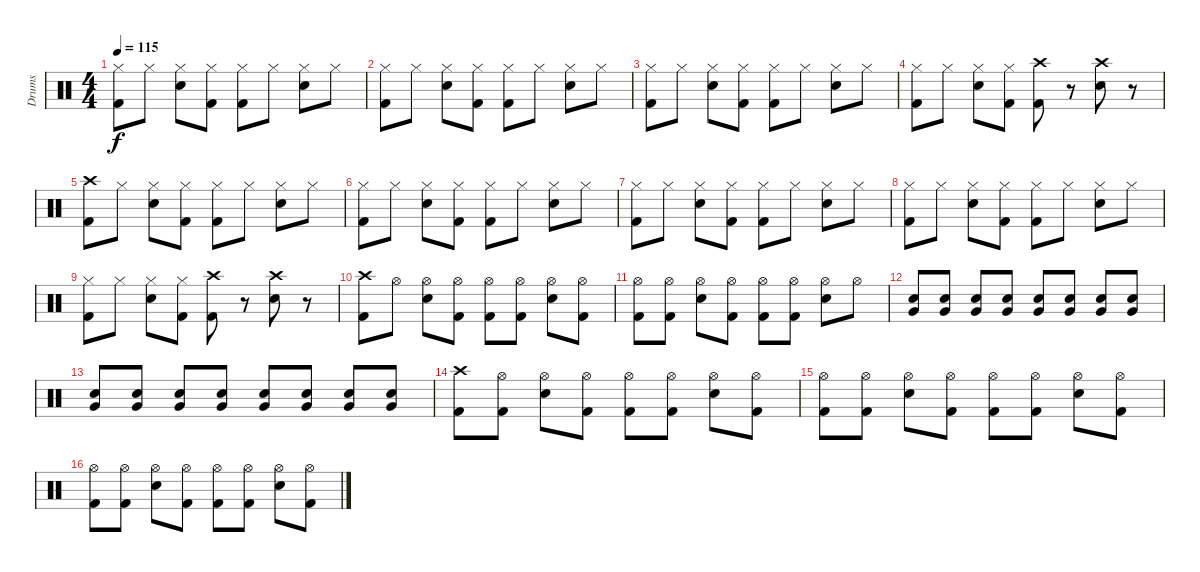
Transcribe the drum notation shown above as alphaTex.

\track ("Drums" "Drums") {instrument percussion}
\staff {score}
\articulation defaults
\ts (4 4)
\tempo 115
\clef neutral
\ks c
("Hi-Hat (closed)" "Kick (hit) 2").8{dy f} "Hi-Hat (closed)".8 ("Hi-Hat (closed)" "Electric Snare (hit)").8 ("Hi-Hat (closed)" "Kick (hit) 2").8 ("Hi-Hat (closed)" "Kick (hit) 2").8 "Hi-Hat (closed)".8 ("Hi-Hat (closed)" "Electric Snare (hit)").8 "Hi-Hat (closed)".8 |
("Hi-Hat (closed)" "Kick (hit) 2").8 "Hi-Hat (closed)".8 ("Hi-Hat (closed)" "Electric Snare (hit)").8 ("Hi-Hat (closed)" "Kick (hit) 2").8 ("Hi-Hat (closed)" "Kick (hit) 2").8 "Hi-Hat (closed)".8 ("Hi-Hat (closed)" "Electric Snare (hit)").8 "Hi-Hat (closed)".8 |
("Hi-Hat (closed)" "Kick (hit) 2").8 "Hi-Hat (closed)".8 ("Hi-Hat (closed)" "Electric Snare (hit)").8 ("Hi-Hat (closed)" "Kick (hit) 2").8 ("Hi-Hat (closed)" "Kick (hit) 2").8 "Hi-Hat (closed)".8 ("Hi-Hat (closed)" "Electric Snare (hit)").8 "Hi-Hat (closed)".8 |
("Hi-Hat (closed)" "Kick (hit) 2").8 "Hi-Hat (closed)".8 ("Hi-Hat (closed)" "Electric Snare (hit)").8 ("Hi-Hat (closed)" "Kick (hit) 2").8 ("Crash high (hit)" "Kick (hit) 2").8 r.8 ("Crash high (hit)" "Electric Snare (hit)").8 r.8 |
("Crash high (hit)" "Kick (hit) 2").8 "Hi-Hat (closed)".8 ("Hi-Hat (closed)" "Electric Snare (hit)").8 ("Hi-Hat (closed)" "Kick (hit) 2").8 ("Hi-Hat (closed)" "Kick (hit) 2").8 "Hi-Hat (closed)".8 ("Hi-Hat (closed)" "Electric Snare (hit)").8 "Hi-Hat (closed)".8 |
("Hi-Hat (closed)" "Kick (hit) 2").8 "Hi-Hat (closed)".8 ("Hi-Hat (closed)" "Electric Snare (hit)").8 ("Hi-Hat (closed)" "Kick (hit) 2").8 ("Hi-Hat (closed)" "Kick (hit) 2").8 "Hi-Hat (closed)".8 ("Hi-Hat (closed)" "Electric Snare (hit)").8 "Hi-Hat (closed)".8 |
("Hi-Hat (closed)" "Kick (hit) 2").8 "Hi-Hat (closed)".8 ("Hi-Hat (closed)" "Electric Snare (hit)").8 ("Hi-Hat (closed)" "Kick (hit) 2").8 ("Hi-Hat (closed)" "Kick (hit) 2").8 "Hi-Hat (closed)".8 ("Hi-Hat (closed)" "Electric Snare (hit)").8 "Hi-Hat (closed)".8 |
("Hi-Hat (closed)" "Kick (hit) 2").8 "Hi-Hat (closed)".8 ("Hi-Hat (closed)" "Electric Snare (hit)").8 ("Hi-Hat (closed)" "Kick (hit) 2").8 ("Hi-Hat (closed)" "Kick (hit) 2").8 "Hi-Hat (closed)".8 ("Hi-Hat (closed)" "Electric Snare (hit)").8 "Hi-Hat (closed)".8 |
("Hi-Hat (closed)" "Kick (hit) 2").8 "Hi-Hat (closed)".8 ("Hi-Hat (closed)" "Electric Snare (hit)").8 ("Hi-Hat (closed)" "Kick (hit) 2").8 ("Crash high (hit)" "Kick (hit) 2").8 r.8 ("Crash high (hit)" "Electric Snare (hit)").8 r.8 |
("Kick (hit) 2" "Crash high (hit)").8 "Hi-Hat (open)".8 ("Hi-Hat (open)" "Electric Snare (hit)").8 ("Hi-Hat (open)" "Kick (hit) 2").8 ("Hi-Hat (open)" "Kick (hit) 2").8 ("Hi-Hat (open)" "Kick (hit) 2").8 ("Hi-Hat (open)" "Electric Snare (hit)").8 ("Hi-Hat (open)" "Kick (hit) 2").8 |
("Hi-Hat (open)" "Kick (hit) 2").8 ("Hi-Hat (open)" "Kick (hit) 2").8 ("Hi-Hat (open)" "Electric Snare (hit)").8 ("Hi-Hat (open)" "Kick (hit) 2").8 ("Hi-Hat (open)" "Kick (hit) 2").8 ("Hi-Hat (open)" "Kick (hit) 2").8 ("Hi-Hat (open)" "Electric Snare (hit)").8 "Hi-Hat (open)".8 |
("Electric Snare (hit)" "Very Low Tom (hit)").8 ("Electric Snare (hit)" "Very Low Tom (hit)").8 ("Electric Snare (hit)" "Very Low Tom (hit)").8 ("Electric Snare (hit)" "Very Low Tom (hit)").8 ("Electric Snare (hit)" "Very Low Tom (hit)").8 ("Electric Snare (hit)" "Very Low Tom (hit)").8 ("Electric Snare (hit)" "Very Low Tom (hit)").8 ("Electric Snare (hit)" "Very Low Tom (hit)").8 |
("Electric Snare (hit)" "Very Low Tom (hit)").8 ("Electric Snare (hit)" "Very Low Tom (hit)").8 ("Electric Snare (hit)" "Very Low Tom (hit)").8 ("Electric Snare (hit)" "Very Low Tom (hit)").8 ("Electric Snare (hit)" "Very Low Tom (hit)").8 ("Electric Snare (hit)" "Very Low Tom (hit)").8 ("Electric Snare (hit)" "Very Low Tom (hit)").8 ("Electric Snare (hit)" "Very Low Tom (hit)").8 |
("Kick (hit) 2" "Crash high (hit)").8 ("Kick (hit) 2" "Hi-Hat (open)").8 ("Electric Snare (hit)" "Hi-Hat (open)").8 ("Kick (hit) 2" "Hi-Hat (open)").8 ("Kick (hit) 2" "Hi-Hat (open)").8 ("Kick (hit) 2" "Hi-Hat (open)").8 ("Electric Snare (hit)" "Hi-Hat (open)").8 ("Hi-Hat (open)" "Kick (hit) 2").8 |
("Kick (hit) 2" "Hi-Hat (open)").8 ("Kick (hit) 2" "Hi-Hat (open)").8 ("Hi-Hat (open)" "Electric Snare (hit)").8 ("Hi-Hat (open)" "Kick (hit) 2").8 ("Hi-Hat (open)" "Kick (hit) 2").8 ("Hi-Hat (open)" "Kick (hit) 2").8 ("Hi-Hat (open)" "Electric Snare (hit)").8 ("Hi-Hat (open)" "Kick (hit) 2").8 |
("Kick (hit) 2" "Hi-Hat (open)").8 ("Kick (hit) 2" "Hi-Hat (open)").8 ("Electric Snare (hit)" "Hi-Hat (open)").8 ("Kick (hit) 2" "Hi-Hat (open)").8 ("Kick (hit) 2" "Hi-Hat (open)").8 ("Kick (hit) 2" "Hi-Hat (open)").8 ("Electric Snare (hit)" "Hi-Hat (open)").8 ("Hi-Hat (open)" "Kick (hit) 2").8
